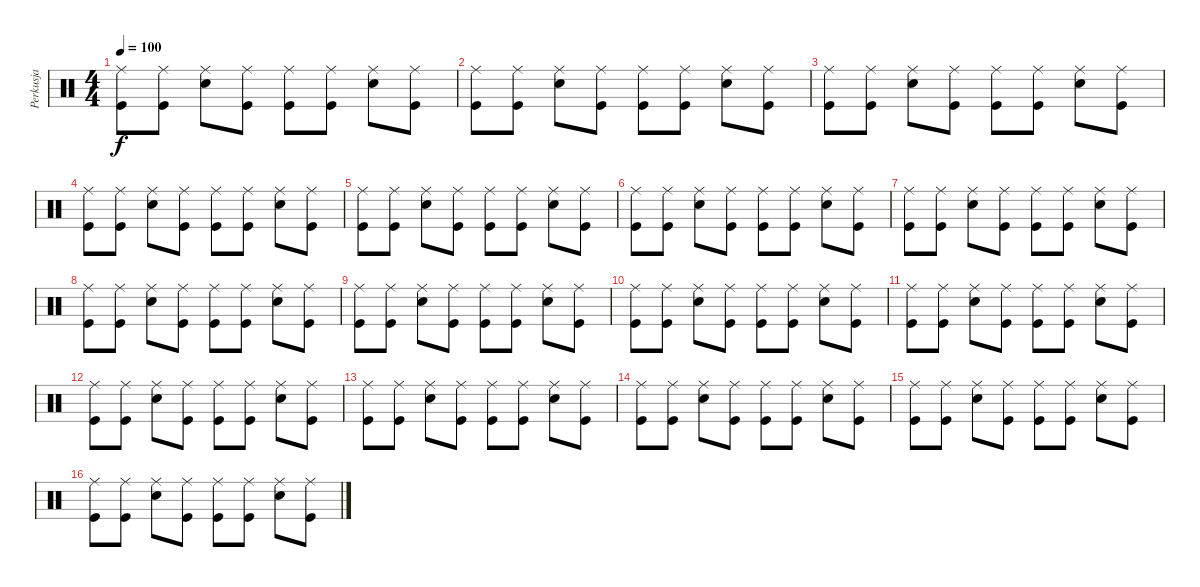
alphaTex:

\track ("Perkusja" "Perkusja") {instrument percussion}
\staff {score}
\articulation defaults
\ts (4 4)
\tempo 100
\clef neutral
\ks c
("Ride (middle)" "Kick (hit)").8{dy f} ("Ride (middle)" "Kick (hit)").8 ("Ride (middle)" "Electric Snare (hit)").8 ("Ride (middle)" "Kick (hit)").8 ("Ride (middle)" "Kick (hit)").8 ("Ride (middle)" "Kick (hit)").8 ("Ride (middle)" "Electric Snare (hit)").8 ("Ride (middle)" "Kick (hit)").8 |
("Ride (middle)" "Kick (hit)").8 ("Ride (middle)" "Kick (hit)").8 ("Ride (middle)" "Electric Snare (hit)").8 ("Ride (middle)" "Kick (hit)").8 ("Ride (middle)" "Kick (hit)").8 ("Ride (middle)" "Kick (hit)").8 ("Ride (middle)" "Electric Snare (hit)").8 ("Ride (middle)" "Kick (hit)").8 |
("Ride (middle)" "Kick (hit)").8 ("Ride (middle)" "Kick (hit)").8 ("Ride (middle)" "Electric Snare (hit)").8 ("Ride (middle)" "Kick (hit)").8 ("Ride (middle)" "Kick (hit)").8 ("Ride (middle)" "Kick (hit)").8 ("Ride (middle)" "Electric Snare (hit)").8 ("Ride (middle)" "Kick (hit)").8 |
("Ride (middle)" "Kick (hit)").8 ("Ride (middle)" "Kick (hit)").8 ("Ride (middle)" "Electric Snare (hit)").8 ("Ride (middle)" "Kick (hit)").8 ("Ride (middle)" "Kick (hit)").8 ("Ride (middle)" "Kick (hit)").8 ("Ride (middle)" "Electric Snare (hit)").8 ("Ride (middle)" "Kick (hit)").8 |
("Ride (middle)" "Kick (hit)").8 ("Ride (middle)" "Kick (hit)").8 ("Ride (middle)" "Electric Snare (hit)").8 ("Ride (middle)" "Kick (hit)").8 ("Ride (middle)" "Kick (hit)").8 ("Ride (middle)" "Kick (hit)").8 ("Ride (middle)" "Electric Snare (hit)").8 ("Ride (middle)" "Kick (hit)").8 |
("Ride (middle)" "Kick (hit)").8 ("Ride (middle)" "Kick (hit)").8 ("Ride (middle)" "Electric Snare (hit)").8 ("Ride (middle)" "Kick (hit)").8 ("Ride (middle)" "Kick (hit)").8 ("Ride (middle)" "Kick (hit)").8 ("Ride (middle)" "Electric Snare (hit)").8 ("Ride (middle)" "Kick (hit)").8 |
("Ride (middle)" "Kick (hit)").8 ("Ride (middle)" "Kick (hit)").8 ("Ride (middle)" "Electric Snare (hit)").8 ("Ride (middle)" "Kick (hit)").8 ("Ride (middle)" "Kick (hit)").8 ("Ride (middle)" "Kick (hit)").8 ("Ride (middle)" "Electric Snare (hit)").8 ("Ride (middle)" "Kick (hit)").8 |
("Ride (middle)" "Kick (hit)").8 ("Ride (middle)" "Kick (hit)").8 ("Ride (middle)" "Electric Snare (hit)").8 ("Ride (middle)" "Kick (hit)").8 ("Ride (middle)" "Kick (hit)").8 ("Ride (middle)" "Kick (hit)").8 ("Ride (middle)" "Electric Snare (hit)").8 ("Ride (middle)" "Kick (hit)").8 |
("Ride (middle)" "Kick (hit)").8 ("Ride (middle)" "Kick (hit)").8 ("Ride (middle)" "Electric Snare (hit)").8 ("Ride (middle)" "Kick (hit)").8 ("Ride (middle)" "Kick (hit)").8 ("Ride (middle)" "Kick (hit)").8 ("Ride (middle)" "Electric Snare (hit)").8 ("Ride (middle)" "Kick (hit)").8 |
("Ride (middle)" "Kick (hit)").8 ("Ride (middle)" "Kick (hit)").8 ("Ride (middle)" "Electric Snare (hit)").8 ("Ride (middle)" "Kick (hit)").8 ("Ride (middle)" "Kick (hit)").8 ("Ride (middle)" "Kick (hit)").8 ("Ride (middle)" "Electric Snare (hit)").8 ("Ride (middle)" "Kick (hit)").8 |
("Ride (middle)" "Kick (hit)").8 ("Ride (middle)" "Kick (hit)").8 ("Ride (middle)" "Electric Snare (hit)").8 ("Ride (middle)" "Kick (hit)").8 ("Ride (middle)" "Kick (hit)").8 ("Ride (middle)" "Kick (hit)").8 ("Ride (middle)" "Electric Snare (hit)").8 ("Ride (middle)" "Kick (hit)").8 |
("Ride (middle)" "Kick (hit)").8 ("Ride (middle)" "Kick (hit)").8 ("Ride (middle)" "Electric Snare (hit)").8 ("Ride (middle)" "Kick (hit)").8 ("Ride (middle)" "Kick (hit)").8 ("Ride (middle)" "Kick (hit)").8 ("Ride (middle)" "Electric Snare (hit)").8 ("Ride (middle)" "Kick (hit)").8 |
("Ride (middle)" "Kick (hit)").8 ("Ride (middle)" "Kick (hit)").8 ("Ride (middle)" "Electric Snare (hit)").8 ("Ride (middle)" "Kick (hit)").8 ("Ride (middle)" "Kick (hit)").8 ("Ride (middle)" "Kick (hit)").8 ("Ride (middle)" "Electric Snare (hit)").8 ("Ride (middle)" "Kick (hit)").8 |
("Ride (middle)" "Kick (hit)").8 ("Ride (middle)" "Kick (hit)").8 ("Ride (middle)" "Electric Snare (hit)").8 ("Ride (middle)" "Kick (hit)").8 ("Ride (middle)" "Kick (hit)").8 ("Ride (middle)" "Kick (hit)").8 ("Ride (middle)" "Electric Snare (hit)").8 ("Ride (middle)" "Kick (hit)").8 |
("Ride (middle)" "Kick (hit)").8 ("Ride (middle)" "Kick (hit)").8 ("Ride (middle)" "Electric Snare (hit)").8 ("Ride (middle)" "Kick (hit)").8 ("Ride (middle)" "Kick (hit)").8 ("Ride (middle)" "Kick (hit)").8 ("Ride (middle)" "Electric Snare (hit)").8 ("Ride (middle)" "Kick (hit)").8 |
("Ride (middle)" "Kick (hit)").8 ("Ride (middle)" "Kick (hit)").8 ("Ride (middle)" "Electric Snare (hit)").8 ("Ride (middle)" "Kick (hit)").8 ("Ride (middle)" "Kick (hit)").8 ("Ride (middle)" "Kick (hit)").8 ("Ride (middle)" "Electric Snare (hit)").8 ("Ride (middle)" "Kick (hit)").8
